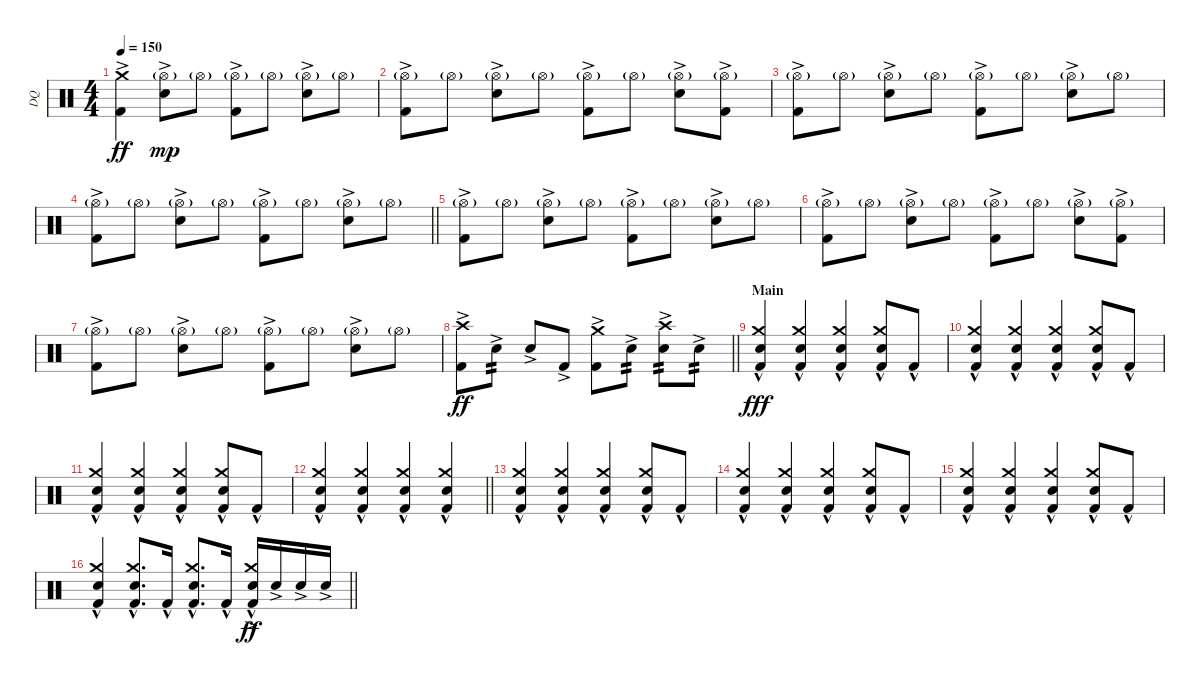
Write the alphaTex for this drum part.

\track ("DQ" "DQ") {instrument percussion}
\staff {score}
\articulation defaults
\ts (4 4)
\section ("" "")
\tempo 150
\clef neutral
\ks c
("Kick (hit) 2"{ac} "Crash medium (hit)").4{dy ff} ("Snare (hit) 2"{ac} "Hi-Hat (open)"{g}).8{dy mp} "Hi-Hat (open)"{g}.8 ("Kick (hit) 2"{ac} "Hi-Hat (open)"{g}).8 "Hi-Hat (open)"{g}.8 ("Snare (hit) 2"{ac} "Hi-Hat (open)"{g}).8 "Hi-Hat (open)"{g}.8 |
("Kick (hit) 2"{ac} "Hi-Hat (open)"{g}).8 "Hi-Hat (open)"{g}.8 ("Snare (hit) 2"{ac} "Hi-Hat (open)"{g}).8 "Hi-Hat (open)"{g}.8 ("Kick (hit) 2"{ac} "Hi-Hat (open)"{g}).8 "Hi-Hat (open)"{g}.8 ("Snare (hit) 2"{ac} "Hi-Hat (open)"{g}).8 ("Kick (hit) 2"{ac} "Hi-Hat (open)"{g}).8 |
("Kick (hit) 2"{ac} "Hi-Hat (open)"{g}).8 "Hi-Hat (open)"{g}.8 ("Snare (hit) 2"{ac} "Hi-Hat (open)"{g}).8 "Hi-Hat (open)"{g}.8 ("Kick (hit) 2"{ac} "Hi-Hat (open)"{g}).8 "Hi-Hat (open)"{g}.8 ("Snare (hit) 2"{ac} "Hi-Hat (open)"{g}).8 "Hi-Hat (open)"{g}.8 |
\barLineRight lightlight
("Kick (hit) 2"{ac} "Hi-Hat (open)"{g}).8 "Hi-Hat (open)"{g}.8 ("Snare (hit) 2"{ac} "Hi-Hat (open)"{g}).8 "Hi-Hat (open)"{g}.8 ("Kick (hit) 2"{ac} "Hi-Hat (open)"{g}).8 "Hi-Hat (open)"{g}.8 ("Snare (hit) 2"{ac} "Hi-Hat (open)"{g}).8 "Hi-Hat (open)"{g}.8 |
\section ("" "")
("Kick (hit) 2"{ac} "Hi-Hat (open)"{g}).8 "Hi-Hat (open)"{g}.8 ("Snare (hit) 2"{ac} "Hi-Hat (open)"{g}).8 "Hi-Hat (open)"{g}.8 ("Kick (hit) 2"{ac} "Hi-Hat (open)"{g}).8 "Hi-Hat (open)"{g}.8 ("Snare (hit) 2"{ac} "Hi-Hat (open)"{g}).8 "Hi-Hat (open)"{g}.8 |
("Kick (hit) 2"{ac} "Hi-Hat (open)"{g}).8 "Hi-Hat (open)"{g}.8 ("Snare (hit) 2"{ac} "Hi-Hat (open)"{g}).8 "Hi-Hat (open)"{g}.8 ("Kick (hit) 2"{ac} "Hi-Hat (open)"{g}).8 "Hi-Hat (open)"{g}.8 ("Snare (hit) 2"{ac} "Hi-Hat (open)"{g}).8 ("Kick (hit) 2"{ac} "Hi-Hat (open)"{g}).8 |
("Kick (hit) 2"{ac} "Hi-Hat (open)"{g}).8 "Hi-Hat (open)"{g}.8 ("Snare (hit) 2"{ac} "Hi-Hat (open)"{g}).8 "Hi-Hat (open)"{g}.8 ("Kick (hit) 2"{ac} "Hi-Hat (open)"{g}).8 "Hi-Hat (open)"{g}.8 ("Snare (hit) 2"{ac} "Hi-Hat (open)"{g}).8 "Hi-Hat (open)"{g}.8 |
\barLineRight lightlight
("Kick (hit) 2"{ac} "Crash high (hit)").8{dy ff} "Snare (hit) 2"{ac}.8{tp 2} "Snare (hit) 2"{ac}.8 "Kick (hit) 2"{ac}.8 ("Kick (hit) 2"{ac} "Crash medium (hit)").8 "Snare (hit) 2"{ac}.8{tp 2} ("Snare (hit) 2"{ac} "Crash high (hit)").8{tp 2} "Snare (hit) 2"{ac}.8{tp 2} |
\section ("" "Main")
("Kick (hit) 2"{hac} "Snare (hit) 2"{hac} "Crash medium (hit)").4{dy fff} ("Kick (hit) 2"{hac} "Snare (hit) 2"{hac} "Crash medium (hit)").4 ("Kick (hit) 2"{hac} "Snare (hit) 2"{hac} "Crash medium (hit)").4 ("Kick (hit) 2"{hac} "Snare (hit) 2"{hac} "Crash medium (hit)").8 "Kick (hit) 2"{hac}.8 |
("Kick (hit) 2"{hac} "Snare (hit) 2"{hac} "Crash medium (hit)").4 ("Kick (hit) 2"{hac} "Snare (hit) 2"{hac} "Crash medium (hit)").4 ("Kick (hit) 2"{hac} "Snare (hit) 2"{hac} "Crash medium (hit)").4 ("Kick (hit) 2"{hac} "Snare (hit) 2"{hac} "Crash medium (hit)").8 "Kick (hit) 2"{hac}.8 |
("Kick (hit) 2"{hac} "Snare (hit) 2"{hac} "Crash medium (hit)").4 ("Kick (hit) 2"{hac} "Snare (hit) 2"{hac} "Crash medium (hit)").4 ("Kick (hit) 2"{hac} "Snare (hit) 2"{hac} "Crash medium (hit)").4 ("Kick (hit) 2"{hac} "Snare (hit) 2"{hac} "Crash medium (hit)").8 "Kick (hit) 2"{hac}.8 |
\barLineRight lightlight
("Kick (hit) 2"{hac} "Snare (hit) 2"{hac} "Crash medium (hit)").4 ("Kick (hit) 2"{hac} "Snare (hit) 2"{hac} "Crash medium (hit)").4 ("Kick (hit) 2"{hac} "Snare (hit) 2"{hac} "Crash medium (hit)").4 ("Kick (hit) 2"{hac} "Snare (hit) 2"{hac} "Crash medium (hit)").4 |
\section ("" "")
("Kick (hit) 2"{hac} "Snare (hit) 2"{hac} "Crash medium (hit)").4 ("Kick (hit) 2"{hac} "Snare (hit) 2"{hac} "Crash medium (hit)").4 ("Kick (hit) 2"{hac} "Snare (hit) 2"{hac} "Crash medium (hit)").4 ("Kick (hit) 2"{hac} "Snare (hit) 2"{hac} "Crash medium (hit)").8 "Kick (hit) 2"{hac}.8 |
("Kick (hit) 2"{hac} "Snare (hit) 2"{hac} "Crash medium (hit)").4 ("Kick (hit) 2"{hac} "Snare (hit) 2"{hac} "Crash medium (hit)").4 ("Kick (hit) 2"{hac} "Snare (hit) 2"{hac} "Crash medium (hit)").4 ("Kick (hit) 2"{hac} "Snare (hit) 2"{hac} "Crash medium (hit)").8 "Kick (hit) 2"{hac}.8 |
("Kick (hit) 2"{hac} "Snare (hit) 2"{hac} "Crash medium (hit)").4 ("Kick (hit) 2"{hac} "Snare (hit) 2"{hac} "Crash medium (hit)").4 ("Kick (hit) 2"{hac} "Snare (hit) 2"{hac} "Crash medium (hit)").4 ("Kick (hit) 2"{hac} "Snare (hit) 2"{hac} "Crash medium (hit)").8 "Kick (hit) 2"{hac}.8 |
\barLineRight lightlight
("Kick (hit) 2"{hac} "Snare (hit) 2"{hac} "Crash medium (hit)").4 ("Kick (hit) 2"{hac} "Snare (hit) 2"{hac} "Crash medium (hit)").8{d} "Kick (hit) 2"{hac}.16 ("Kick (hit) 2"{hac} "Snare (hit) 2"{hac} "Crash medium (hit)").8{d} "Kick (hit) 2"{hac}.16 ("Kick (hit) 2"{hac} "Snare (hit) 2"{ac} "Crash medium (hit)").16{dy ff} "Snare (hit) 2"{ac}.16 "Snare (hit) 2"{ac}.16 "Snare (hit) 2"{ac}.16
